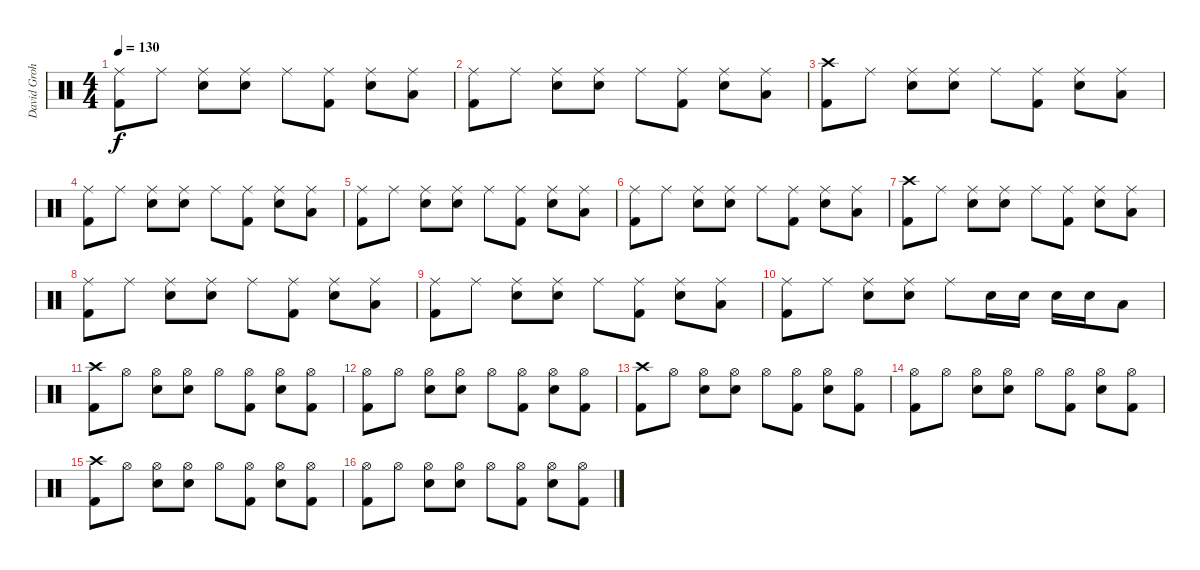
\track ("David Grohl" "David Groh") {instrument percussion}
\staff {score}
\articulation defaults
\ts (4 4)
\tempo 130
\clef neutral
\ks c
("Ride (middle)" "Kick (hit) 2").8{dy f} "Ride (middle)".8 ("Ride (middle)" "Electric Snare (hit)").8 ("Ride (middle)" "Electric Snare (hit)").8 "Ride (middle)".8 ("Ride (middle)" "Kick (hit) 2").8 ("Ride (middle)" "Electric Snare (hit)").8 ("Ride (middle)" "Low Tom (hit)").8 |
("Ride (middle)" "Kick (hit) 2").8 "Ride (middle)".8 ("Ride (middle)" "Electric Snare (hit)").8 ("Ride (middle)" "Electric Snare (hit)").8 "Ride (middle)".8 ("Ride (middle)" "Kick (hit) 2").8 ("Ride (middle)" "Electric Snare (hit)").8 ("Ride (middle)" "Low Tom (hit)").8 |
("Crash high (hit)" "Kick (hit) 2").8 "Ride (middle)".8 ("Ride (middle)" "Electric Snare (hit)").8 ("Ride (middle)" "Electric Snare (hit)").8 "Ride (middle)".8 ("Ride (middle)" "Kick (hit) 2").8 ("Ride (middle)" "Electric Snare (hit)").8 ("Ride (middle)" "Low Tom (hit)").8 |
("Ride (middle)" "Kick (hit) 2").8 "Ride (middle)".8 ("Ride (middle)" "Electric Snare (hit)").8 ("Ride (middle)" "Electric Snare (hit)").8 "Ride (middle)".8 ("Ride (middle)" "Kick (hit) 2").8 ("Ride (middle)" "Electric Snare (hit)").8 ("Ride (middle)" "Low Tom (hit)").8 |
("Ride (middle)" "Kick (hit) 2").8 "Ride (middle)".8 ("Ride (middle)" "Electric Snare (hit)").8 ("Ride (middle)" "Electric Snare (hit)").8 "Ride (middle)".8 ("Ride (middle)" "Kick (hit) 2").8 ("Ride (middle)" "Electric Snare (hit)").8 ("Ride (middle)" "Low Tom (hit)").8 |
("Ride (middle)" "Kick (hit) 2").8 "Ride (middle)".8 ("Ride (middle)" "Electric Snare (hit)").8 ("Ride (middle)" "Electric Snare (hit)").8 "Ride (middle)".8 ("Ride (middle)" "Kick (hit) 2").8 ("Ride (middle)" "Electric Snare (hit)").8 ("Ride (middle)" "Low Tom (hit)").8 |
("Crash high (hit)" "Kick (hit) 2").8 "Ride (middle)".8 ("Ride (middle)" "Electric Snare (hit)").8 ("Ride (middle)" "Electric Snare (hit)").8 "Ride (middle)".8 ("Ride (middle)" "Kick (hit) 2").8 ("Ride (middle)" "Electric Snare (hit)").8 ("Ride (middle)" "Low Tom (hit)").8 |
("Ride (middle)" "Kick (hit) 2").8 "Ride (middle)".8 ("Ride (middle)" "Electric Snare (hit)").8 ("Ride (middle)" "Electric Snare (hit)").8 "Ride (middle)".8 ("Ride (middle)" "Kick (hit) 2").8 ("Ride (middle)" "Electric Snare (hit)").8 ("Ride (middle)" "Low Tom (hit)").8 |
("Ride (middle)" "Kick (hit) 2").8 "Ride (middle)".8 ("Ride (middle)" "Electric Snare (hit)").8 ("Ride (middle)" "Electric Snare (hit)").8 "Ride (middle)".8 ("Ride (middle)" "Kick (hit) 2").8 ("Ride (middle)" "Electric Snare (hit)").8 ("Ride (middle)" "Low Tom (hit)").8 |
("Ride (middle)" "Kick (hit) 2").8 "Ride (middle)".8 ("Ride (middle)" "Electric Snare (hit)").8 ("Ride (middle)" "Electric Snare (hit)").8 "Ride (middle)".8 "Electric Snare (hit)".16 "Electric Snare (hit)".16 "Electric Snare (hit)".16 "Electric Snare (hit)".16 "Low Tom (hit)".8 |
("Crash high (hit)" "Kick (hit) 2").8 "Hi-Hat (open)".8 ("Hi-Hat (open)" "Electric Snare (hit)").8 ("Hi-Hat (open)" "Electric Snare (hit)").8 "Hi-Hat (open)".8 ("Hi-Hat (open)" "Kick (hit) 2").8 ("Hi-Hat (open)" "Electric Snare (hit)").8 ("Hi-Hat (open)" "Kick (hit) 2").8 |
("Hi-Hat (open)" "Kick (hit) 2").8 "Hi-Hat (open)".8 ("Hi-Hat (open)" "Electric Snare (hit)").8 ("Hi-Hat (open)" "Electric Snare (hit)").8 "Hi-Hat (open)".8 ("Hi-Hat (open)" "Kick (hit) 2").8 ("Hi-Hat (open)" "Electric Snare (hit)").8 ("Hi-Hat (open)" "Kick (hit) 2").8 |
("Crash high (hit)" "Kick (hit) 2").8 "Hi-Hat (open)".8 ("Hi-Hat (open)" "Electric Snare (hit)").8 ("Hi-Hat (open)" "Electric Snare (hit)").8 "Hi-Hat (open)".8 ("Hi-Hat (open)" "Kick (hit) 2").8 ("Hi-Hat (open)" "Electric Snare (hit)").8 ("Hi-Hat (open)" "Kick (hit) 2").8 |
("Hi-Hat (open)" "Kick (hit) 2").8 "Hi-Hat (open)".8 ("Hi-Hat (open)" "Electric Snare (hit)").8 ("Hi-Hat (open)" "Electric Snare (hit)").8 "Hi-Hat (open)".8 ("Hi-Hat (open)" "Kick (hit) 2").8 ("Hi-Hat (open)" "Electric Snare (hit)").8 ("Hi-Hat (open)" "Kick (hit) 2").8 |
("Crash high (hit)" "Kick (hit) 2").8 "Hi-Hat (open)".8 ("Hi-Hat (open)" "Electric Snare (hit)").8 ("Hi-Hat (open)" "Electric Snare (hit)").8 "Hi-Hat (open)".8 ("Hi-Hat (open)" "Kick (hit) 2").8 ("Hi-Hat (open)" "Electric Snare (hit)").8 ("Hi-Hat (open)" "Kick (hit) 2").8 |
("Hi-Hat (open)" "Kick (hit) 2").8 "Hi-Hat (open)".8 ("Hi-Hat (open)" "Electric Snare (hit)").8 ("Hi-Hat (open)" "Electric Snare (hit)").8 "Hi-Hat (open)".8 ("Hi-Hat (open)" "Kick (hit) 2").8 ("Hi-Hat (open)" "Electric Snare (hit)").8 ("Hi-Hat (open)" "Kick (hit) 2").8
